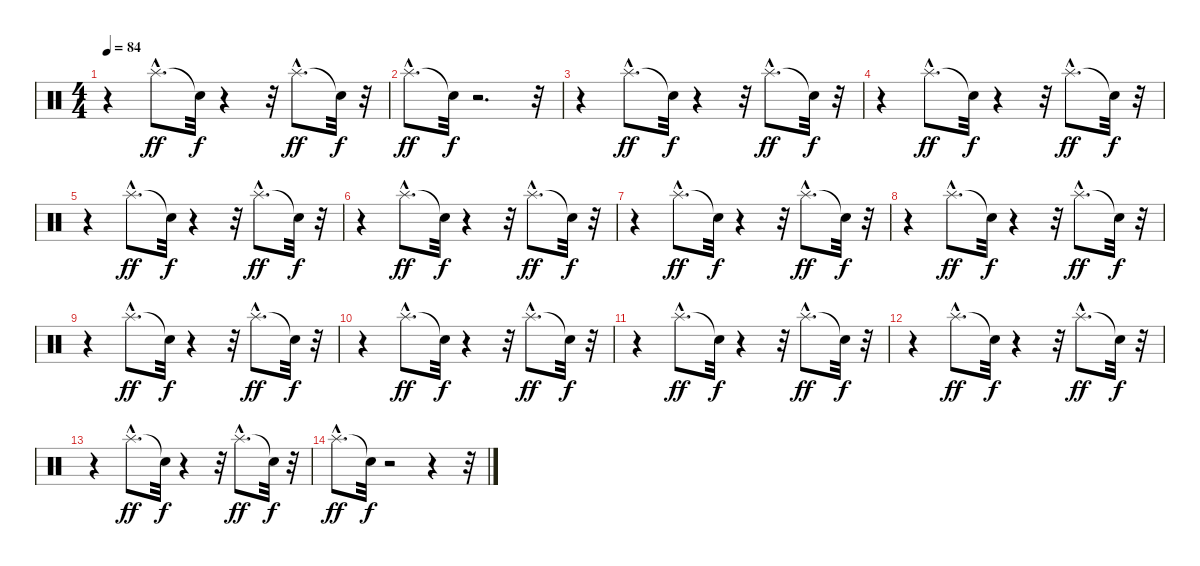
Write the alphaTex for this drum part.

\track "" {instrument percussion}
\staff {score}
\articulation defaults
\ts (4 4)
\tempo 84
\clef neutral
\ks c
r.4{dy f} "Splash (hit)"{hac}.8{d dy ff} "Snare (hit)"{t}.32{dy f} r.4 r.32 "Splash (hit)"{hac}.8{d dy ff} "Snare (hit)"{t}.32{dy f} r.32 |
"Splash (hit)"{hac}.8{d dy ff} "Snare (hit)"{t}.32{dy f} r.2{d} r.32 |
r.4 "Splash (hit)"{hac}.8{d dy ff} "Snare (hit)"{t}.32{dy f} r.4 r.32 "Splash (hit)"{hac}.8{d dy ff} "Snare (hit)"{t}.32{dy f} r.32 |
r.4 "Splash (hit)"{hac}.8{d dy ff} "Snare (hit)"{t}.32{dy f} r.4 r.32 "Splash (hit)"{hac}.8{d dy ff} "Snare (hit)"{t}.32{dy f} r.32 |
r.4 "Splash (hit)"{hac}.8{d dy ff} "Snare (hit)"{t}.32{dy f} r.4 r.32 "Splash (hit)"{hac}.8{d dy ff} "Snare (hit)"{t}.32{dy f} r.32 |
r.4 "Splash (hit)"{hac}.8{d dy ff} "Snare (hit)"{t}.32{dy f} r.4 r.32 "Splash (hit)"{hac}.8{d dy ff} "Snare (hit)"{t}.32{dy f} r.32 |
r.4 "Splash (hit)"{hac}.8{d dy ff} "Snare (hit)"{t}.32{dy f} r.4 r.32 "Splash (hit)"{hac}.8{d dy ff} "Snare (hit)"{t}.32{dy f} r.32 |
r.4 "Splash (hit)"{hac}.8{d dy ff} "Snare (hit)"{t}.32{dy f} r.4 r.32 "Splash (hit)"{hac}.8{d dy ff} "Snare (hit)"{t}.32{dy f} r.32 |
r.4 "Splash (hit)"{hac}.8{d dy ff} "Snare (hit)"{t}.32{dy f} r.4 r.32 "Splash (hit)"{hac}.8{d dy ff} "Snare (hit)"{t}.32{dy f} r.32 |
r.4 "Splash (hit)"{hac}.8{d dy ff} "Snare (hit)"{t}.32{dy f} r.4 r.32 "Splash (hit)"{hac}.8{d dy ff} "Snare (hit)"{t}.32{dy f} r.32 |
r.4 "Splash (hit)"{hac}.8{d dy ff} "Snare (hit)"{t}.32{dy f} r.4 r.32 "Splash (hit)"{hac}.8{d dy ff} "Snare (hit)"{t}.32{dy f} r.32 |
r.4 "Splash (hit)"{hac}.8{d dy ff} "Snare (hit)"{t}.32{dy f} r.4 r.32 "Splash (hit)"{hac}.8{d dy ff} "Snare (hit)"{t}.32{dy f} r.32 |
r.4 "Splash (hit)"{hac}.8{d dy ff} "Snare (hit)"{t}.32{dy f} r.4 r.32 "Splash (hit)"{hac}.8{d dy ff} "Snare (hit)"{t}.32{dy f} r.32 |
"Splash (hit)"{hac}.8{d dy ff} "Snare (hit)"{t}.32{dy f} r.2 r.4 r.32
